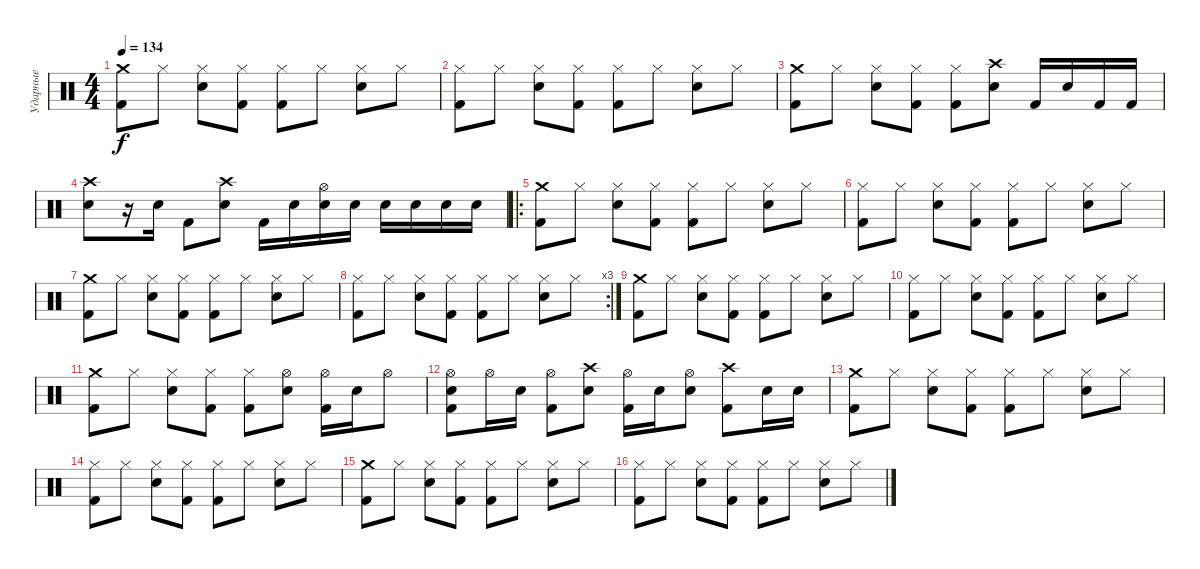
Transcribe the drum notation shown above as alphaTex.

\track ("Ударные" "Ударные") {instrument percussion}
\staff {score}
\articulation defaults
\ts (4 4)
\tempo 134
\clef neutral
\ks c
("Kick (hit) 2" "Crash medium (hit)").8{dy f} "Hi-Hat (closed)".8 ("Electric Snare (hit)" "Hi-Hat (closed)").8 ("Kick (hit) 2" "Hi-Hat (closed)").8 ("Kick (hit) 2" "Hi-Hat (closed)").8 "Hi-Hat (closed)".8 ("Electric Snare (hit)" "Hi-Hat (closed)").8 "Hi-Hat (closed)".8 |
("Kick (hit) 2" "Hi-Hat (closed)").8 "Hi-Hat (closed)".8 ("Electric Snare (hit)" "Hi-Hat (closed)").8 ("Kick (hit) 2" "Hi-Hat (closed)").8 ("Kick (hit) 2" "Hi-Hat (closed)").8 "Hi-Hat (closed)".8 ("Electric Snare (hit)" "Hi-Hat (closed)").8 "Hi-Hat (closed)".8 |
("Kick (hit) 2" "Crash medium (hit)").8 "Hi-Hat (closed)".8 ("Electric Snare (hit)" "Hi-Hat (closed)").8 ("Kick (hit) 2" "Hi-Hat (closed)").8 ("Kick (hit) 2" "Hi-Hat (closed)").8 ("Electric Snare (hit)" "Crash high (hit)").8 "Kick (hit) 2".16 "Electric Snare (hit)".16 "Kick (hit) 2".16 "Kick (hit) 2".16 |
("Electric Snare (hit)" "Crash high (hit)").8 r.16 "Electric Snare (hit)".16 "Kick (hit) 2".8 ("Electric Snare (hit)" "Crash high (hit)").8 "Kick (hit) 2".16 "Electric Snare (hit)".16 ("Electric Snare (hit)" "Hi-Hat (open)").16 "Electric Snare (hit)".16 "Electric Snare (hit)".16 "Electric Snare (hit)".16 "Electric Snare (hit)".16 "Electric Snare (hit)".16 |
\ro
("Kick (hit) 2" "Crash medium (hit)").8 "Hi-Hat (closed)".8 ("Electric Snare (hit)" "Hi-Hat (closed)").8 ("Kick (hit) 2" "Hi-Hat (closed)").8 ("Kick (hit) 2" "Hi-Hat (closed)").8 "Hi-Hat (closed)".8 ("Electric Snare (hit)" "Hi-Hat (closed)").8 "Hi-Hat (closed)".8 |
("Kick (hit) 2" "Hi-Hat (closed)").8 "Hi-Hat (closed)".8 ("Electric Snare (hit)" "Hi-Hat (closed)").8 ("Kick (hit) 2" "Hi-Hat (closed)").8 ("Kick (hit) 2" "Hi-Hat (closed)").8 "Hi-Hat (closed)".8 ("Electric Snare (hit)" "Hi-Hat (closed)").8 "Hi-Hat (closed)".8 |
("Kick (hit) 2" "Crash medium (hit)").8 "Hi-Hat (closed)".8 ("Electric Snare (hit)" "Hi-Hat (closed)").8 ("Kick (hit) 2" "Hi-Hat (closed)").8 ("Kick (hit) 2" "Hi-Hat (closed)").8 "Hi-Hat (closed)".8 ("Electric Snare (hit)" "Hi-Hat (closed)").8 "Hi-Hat (closed)".8 |
\rc 3
("Kick (hit) 2" "Hi-Hat (closed)").8 "Hi-Hat (closed)".8 ("Electric Snare (hit)" "Hi-Hat (closed)").8 ("Kick (hit) 2" "Hi-Hat (closed)").8 ("Kick (hit) 2" "Hi-Hat (closed)").8 "Hi-Hat (closed)".8 ("Electric Snare (hit)" "Hi-Hat (closed)").8 "Hi-Hat (closed)".8 |
("Kick (hit) 2" "Crash medium (hit)").8 "Hi-Hat (closed)".8 ("Electric Snare (hit)" "Hi-Hat (closed)").8 ("Kick (hit) 2" "Hi-Hat (closed)").8 ("Kick (hit) 2" "Hi-Hat (closed)").8 "Hi-Hat (closed)".8 ("Electric Snare (hit)" "Hi-Hat (closed)").8 "Hi-Hat (closed)".8 |
("Kick (hit) 2" "Hi-Hat (closed)").8 "Hi-Hat (closed)".8 ("Electric Snare (hit)" "Hi-Hat (closed)").8 ("Kick (hit) 2" "Hi-Hat (closed)").8 ("Kick (hit) 2" "Hi-Hat (closed)").8 "Hi-Hat (closed)".8 ("Electric Snare (hit)" "Hi-Hat (closed)").8 "Hi-Hat (closed)".8 |
("Kick (hit) 2" "Crash medium (hit)").8 "Hi-Hat (closed)".8 ("Electric Snare (hit)" "Hi-Hat (closed)").8 ("Kick (hit) 2" "Hi-Hat (closed)").8 ("Kick (hit) 2" "Hi-Hat (closed)").8 ("Electric Snare (hit)" "Hi-Hat (open)").8 ("Kick (hit) 2" "Hi-Hat (open)").16 "Electric Snare (hit)".16 "Hi-Hat (open)".8 |
("Kick (hit) 2" "Hi-Hat (open)" "Electric Snare (hit)").8 "Hi-Hat (open)".16 "Electric Snare (hit)".16 ("Kick (hit) 2" "Hi-Hat (open)").8 ("Electric Snare (hit)" "Crash high (hit)").8 ("Kick (hit) 2" "Hi-Hat (open)").16 "Electric Snare (hit)".16 ("Electric Snare (hit)" "Hi-Hat (open)").8 ("Kick (hit) 2" "Crash high (hit)").8 "Electric Snare (hit)".16 "Electric Snare (hit)".16 |
("Kick (hit) 2" "Crash medium (hit)").8 "Hi-Hat (closed)".8 ("Electric Snare (hit)" "Hi-Hat (closed)").8 ("Kick (hit) 2" "Hi-Hat (closed)").8 ("Kick (hit) 2" "Hi-Hat (closed)").8 "Hi-Hat (closed)".8 ("Electric Snare (hit)" "Hi-Hat (closed)").8 "Hi-Hat (closed)".8 |
("Kick (hit) 2" "Hi-Hat (closed)").8 "Hi-Hat (closed)".8 ("Electric Snare (hit)" "Hi-Hat (closed)").8 ("Kick (hit) 2" "Hi-Hat (closed)").8 ("Kick (hit) 2" "Hi-Hat (closed)").8 "Hi-Hat (closed)".8 ("Electric Snare (hit)" "Hi-Hat (closed)").8 "Hi-Hat (closed)".8 |
("Kick (hit) 2" "Crash medium (hit)").8 "Hi-Hat (closed)".8 ("Electric Snare (hit)" "Hi-Hat (closed)").8 ("Kick (hit) 2" "Hi-Hat (closed)").8 ("Kick (hit) 2" "Hi-Hat (closed)").8 "Hi-Hat (closed)".8 ("Electric Snare (hit)" "Hi-Hat (closed)").8 "Hi-Hat (closed)".8 |
("Kick (hit) 2" "Hi-Hat (closed)").8 "Hi-Hat (closed)".8 ("Electric Snare (hit)" "Hi-Hat (closed)").8 ("Kick (hit) 2" "Hi-Hat (closed)").8 ("Kick (hit) 2" "Hi-Hat (closed)").8 "Hi-Hat (closed)".8 ("Electric Snare (hit)" "Hi-Hat (closed)").8 "Hi-Hat (closed)".8
